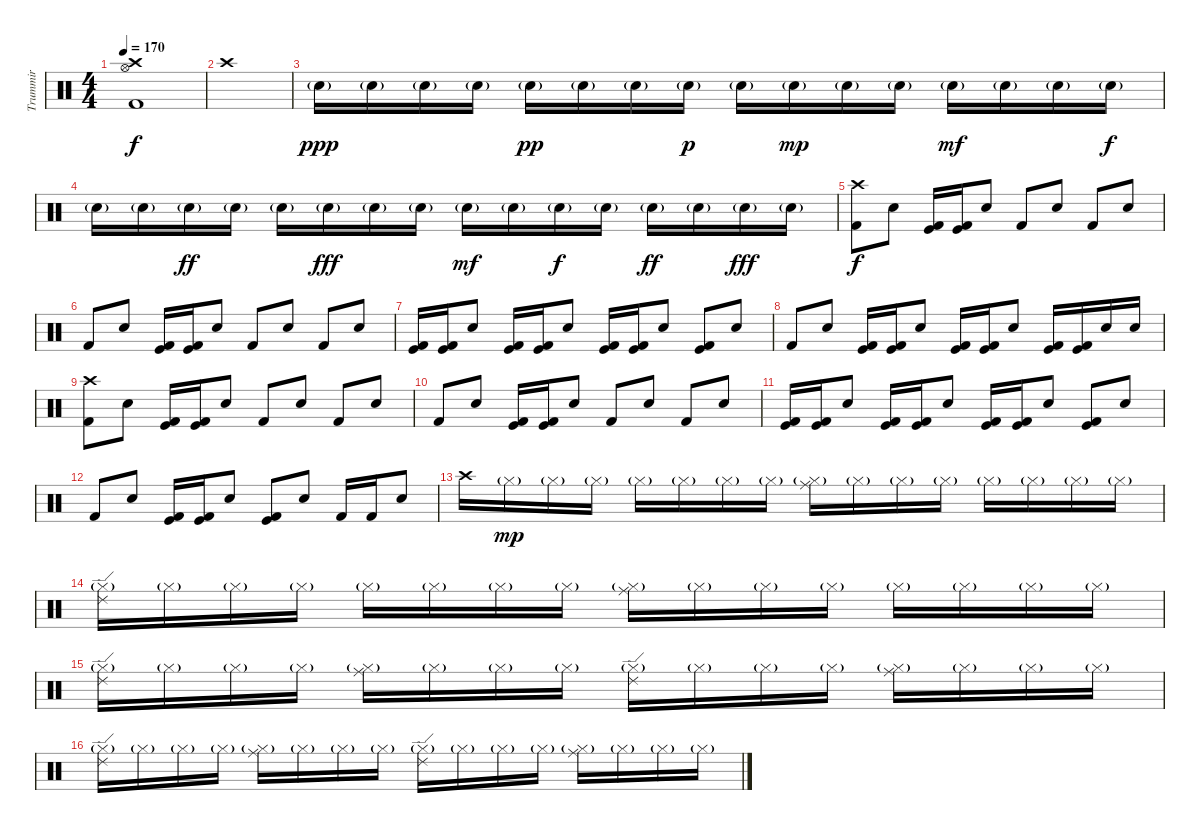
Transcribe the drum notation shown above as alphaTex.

\track ("Trummir" "Trummir") {instrument percussion}
\staff {score}
\articulation defaults
\ts (4 4)
\tempo 170
\clef neutral
\ks c
("Crash high (hit)" "Hi-Hat (open)" "Kick (hit) 2").1{dy f} |
"Crash high (hit)".1 |
"Snare (hit) 2"{g}.16{dy ppp} "Snare (hit) 2"{g}.16 "Snare (hit) 2"{g}.16 "Snare (hit) 2"{g}.16 "Snare (hit) 2"{g}.16{dy pp} "Snare (hit) 2"{g}.16 "Snare (hit) 2"{g}.16 "Snare (hit) 2"{g}.16{dy p} "Snare (hit) 2"{g}.16 "Snare (hit) 2"{g}.16{dy mp} "Snare (hit) 2"{g}.16 "Snare (hit) 2"{g}.16 "Snare (hit) 2"{g}.16{dy mf} "Snare (hit) 2"{g}.16 "Snare (hit) 2"{g}.16 "Snare (hit) 2"{g}.16{dy f} |
"Snare (hit) 2"{g}.16 "Snare (hit) 2"{g}.16 "Snare (hit) 2"{g}.16{dy ff} "Snare (hit) 2"{g}.16 "Snare (hit) 2"{g}.16 "Snare (hit) 2"{g}.16{dy fff} "Snare (hit) 2"{g}.16 "Snare (hit) 2"{g}.16 "Snare (hit) 2"{g}.16{dy mf} "Snare (hit) 2"{g}.16 "Snare (hit) 2"{g}.16{dy f} "Snare (hit) 2"{g}.16 "Snare (hit) 2"{g}.16{dy ff} "Snare (hit) 2"{g}.16 "Snare (hit) 2"{g}.16{dy fff} "Snare (hit) 2"{g}.16 |
("Crash high (hit)" "Kick (hit) 2").8{dy f} "Snare (hit) 2".8 ("Kick (hit) 2" "Kick (hit)").16 ("Kick (hit) 2" "Kick (hit)").16 "Snare (hit) 2".8 "Kick (hit) 2".8 "Snare (hit) 2".8 "Kick (hit) 2".8 "Snare (hit) 2".8 |
"Kick (hit) 2".8 "Snare (hit) 2".8 ("Kick (hit) 2" "Kick (hit)").16 ("Kick (hit) 2" "Kick (hit)").16 "Snare (hit) 2".8 "Kick (hit) 2".8 "Snare (hit) 2".8 "Kick (hit) 2".8 "Snare (hit) 2".8 |
("Kick (hit) 2" "Kick (hit)").16 ("Kick (hit) 2" "Kick (hit)").16 "Snare (hit) 2".8 ("Kick (hit) 2" "Kick (hit)").16 ("Kick (hit) 2" "Kick (hit)").16 "Snare (hit) 2".8 ("Kick (hit) 2" "Kick (hit)").16 ("Kick (hit) 2" "Kick (hit)").16 "Snare (hit) 2".8 ("Kick (hit) 2" "Kick (hit)").8 "Snare (hit) 2".8 |
"Kick (hit) 2".8 "Snare (hit) 2".8 ("Kick (hit) 2" "Kick (hit)").16 ("Kick (hit) 2" "Kick (hit)").16 "Snare (hit) 2".8 ("Kick (hit) 2" "Kick (hit)").16 ("Kick (hit) 2" "Kick (hit)").16 "Snare (hit) 2".8 ("Kick (hit) 2" "Kick (hit)").16 ("Kick (hit) 2" "Kick (hit)").16 "Snare (hit) 2".16 "Snare (hit) 2".16 |
("Crash high (hit)" "Kick (hit) 2").8 "Snare (hit) 2".8 ("Kick (hit) 2" "Kick (hit)").16 ("Kick (hit) 2" "Kick (hit)").16 "Snare (hit) 2".8 "Kick (hit) 2".8 "Snare (hit) 2".8 "Kick (hit) 2".8 "Snare (hit) 2".8 |
"Kick (hit) 2".8 "Snare (hit) 2".8 ("Kick (hit) 2" "Kick (hit)").16 ("Kick (hit) 2" "Kick (hit)").16 "Snare (hit) 2".8 "Kick (hit) 2".8 "Snare (hit) 2".8 "Kick (hit) 2".8 "Snare (hit) 2".8 |
("Kick (hit) 2" "Kick (hit)").16 ("Kick (hit) 2" "Kick (hit)").16 "Snare (hit) 2".8 ("Kick (hit) 2" "Kick (hit)").16 ("Kick (hit) 2" "Kick (hit)").16 "Snare (hit) 2".8 ("Kick (hit) 2" "Kick (hit)").16 ("Kick (hit) 2" "Kick (hit)").16 "Snare (hit) 2".8 ("Kick (hit) 2" "Kick (hit)").8 "Snare (hit) 2".8 |
"Kick (hit) 2".8 "Snare (hit) 2".8 ("Kick (hit) 2" "Kick (hit)").16 ("Kick (hit) 2" "Kick (hit)").16 "Snare (hit) 2".8 ("Kick (hit) 2" "Kick (hit)").8 "Snare (hit) 2".8 "Kick (hit) 2".16 "Kick (hit) 2".16 "Snare (hit) 2".8 |
"Crash high (hit)".16 "Hi-Hat (closed)"{g}.16{dy mp} "Hi-Hat (closed)"{g}.16 "Hi-Hat (closed)"{g}.16 "Hi-Hat (closed)"{g}.16 "Hi-Hat (closed)"{g}.16 "Hi-Hat (closed)"{g}.16 "Hi-Hat (closed)"{g}.16 ("Hi-Hat (closed)"{g} "Ride (middle)").16 "Hi-Hat (closed)"{g}.16 "Hi-Hat (closed)"{g}.16 "Hi-Hat (closed)"{g}.16 "Hi-Hat (closed)"{g}.16 "Hi-Hat (closed)"{g}.16 "Hi-Hat (closed)"{g}.16 "Hi-Hat (closed)"{g}.16 |
("Hi-Hat (closed)"{g} "Ride (edge) 2").16 "Hi-Hat (closed)"{g}.16 "Hi-Hat (closed)"{g}.16 "Hi-Hat (closed)"{g}.16 "Hi-Hat (closed)"{g}.16 "Hi-Hat (closed)"{g}.16 "Hi-Hat (closed)"{g}.16 "Hi-Hat (closed)"{g}.16 ("Hi-Hat (closed)"{g} "Ride (middle)").16 "Hi-Hat (closed)"{g}.16 "Hi-Hat (closed)"{g}.16 "Hi-Hat (closed)"{g}.16 "Hi-Hat (closed)"{g}.16 "Hi-Hat (closed)"{g}.16 "Hi-Hat (closed)"{g}.16 "Hi-Hat (closed)"{g}.16 |
("Hi-Hat (closed)"{g} "Ride (edge) 2").16 "Hi-Hat (closed)"{g}.16 "Hi-Hat (closed)"{g}.16 "Hi-Hat (closed)"{g}.16 ("Hi-Hat (closed)"{g} "Ride (middle)").16 "Hi-Hat (closed)"{g}.16 "Hi-Hat (closed)"{g}.16 "Hi-Hat (closed)"{g}.16 ("Hi-Hat (closed)"{g} "Ride (edge) 2").16 "Hi-Hat (closed)"{g}.16 "Hi-Hat (closed)"{g}.16 "Hi-Hat (closed)"{g}.16 ("Hi-Hat (closed)"{g} "Ride (middle)").16 "Hi-Hat (closed)"{g}.16 "Hi-Hat (closed)"{g}.16 "Hi-Hat (closed)"{g}.16 |
("Hi-Hat (closed)"{g} "Ride (edge) 2").16 "Hi-Hat (closed)"{g}.16 "Hi-Hat (closed)"{g}.16 "Hi-Hat (closed)"{g}.16 ("Hi-Hat (closed)"{g} "Ride (middle)").16 "Hi-Hat (closed)"{g}.16 "Hi-Hat (closed)"{g}.16 "Hi-Hat (closed)"{g}.16 ("Hi-Hat (closed)"{g} "Ride (edge) 2").16 "Hi-Hat (closed)"{g}.16 "Hi-Hat (closed)"{g}.16 "Hi-Hat (closed)"{g}.16 ("Hi-Hat (closed)"{g} "Ride (middle)").16 "Hi-Hat (closed)"{g}.16 "Hi-Hat (closed)"{g}.16 "Hi-Hat (closed)"{g}.16
